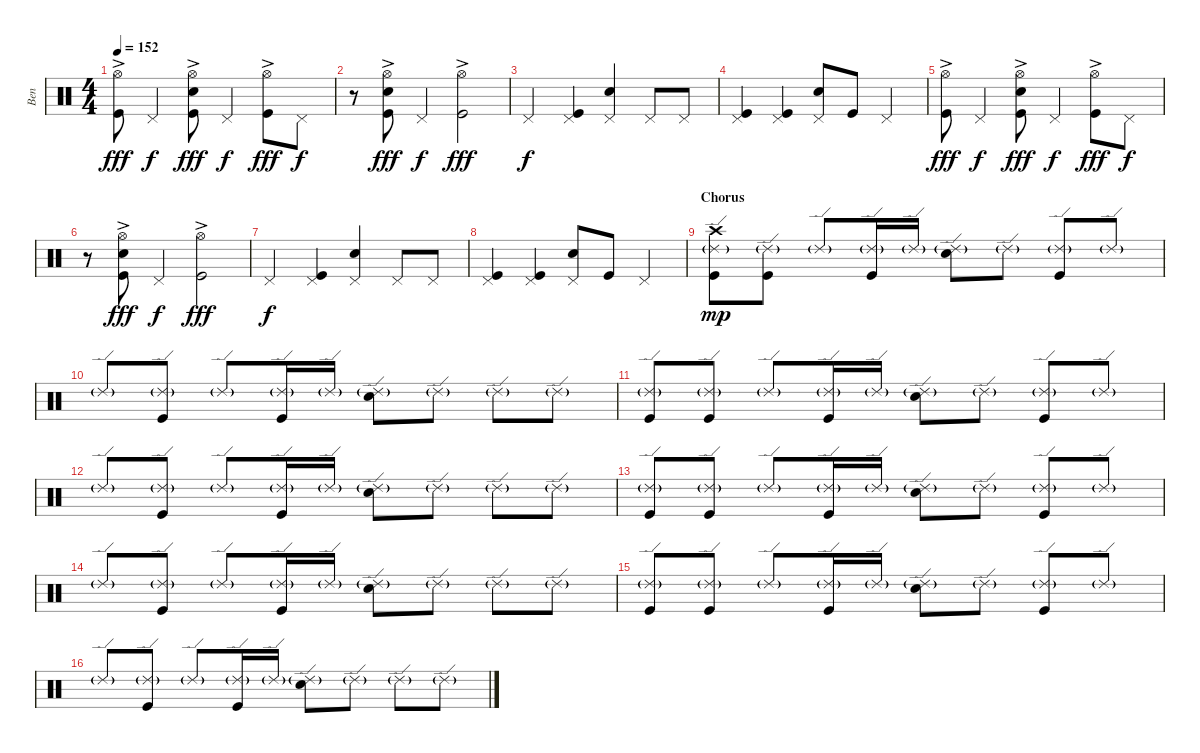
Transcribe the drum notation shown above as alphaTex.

\track ("Ben" "Ben") {instrument percussion}
\staff {score}
\articulation defaults
\ts (4 4)
\tempo 152
\clef neutral
\ks c
("Hi-Hat (open)" "Kick (hit)"{ac}).8{dy fff} "Pedal Hi-Hat (hit)".4{dy f} ("Hi-Hat (open)" "Electric Snare (hit)" "Kick (hit)"{ac}).8{dy fff} "Pedal Hi-Hat (hit)".4{dy f} ("Hi-Hat (open)" "Kick (hit)"{ac}).8{dy fff} "Pedal Hi-Hat (hit)".8{dy f} |
r.8 ("Hi-Hat (open)" "Electric Snare (hit)" "Kick (hit)"{ac}).8{dy fff} "Pedal Hi-Hat (hit)".4{dy f} ("Hi-Hat (open)" "Kick (hit)"{ac}).2{dy fff} |
"Pedal Hi-Hat (hit)".4{dy f} ("Pedal Hi-Hat (hit)" "Kick (hit)").4 ("Pedal Hi-Hat (hit)" "Electric Snare (hit)").4 "Pedal Hi-Hat (hit)".8 "Pedal Hi-Hat (hit)".8 |
("Pedal Hi-Hat (hit)" "Kick (hit)").4 ("Pedal Hi-Hat (hit)" "Kick (hit)").4 ("Pedal Hi-Hat (hit)" "Electric Snare (hit)").8 "Kick (hit)".8 "Pedal Hi-Hat (hit)".4 |
("Hi-Hat (open)" "Kick (hit)"{ac}).8{dy fff} "Pedal Hi-Hat (hit)".4{dy f} ("Hi-Hat (open)" "Electric Snare (hit)" "Kick (hit)"{ac}).8{dy fff} "Pedal Hi-Hat (hit)".4{dy f} ("Hi-Hat (open)" "Kick (hit)"{ac}).8{dy fff} "Pedal Hi-Hat (hit)".8{dy f} |
r.8 ("Hi-Hat (open)" "Electric Snare (hit)" "Kick (hit)"{ac}).8{dy fff} "Pedal Hi-Hat (hit)".4{dy f} ("Hi-Hat (open)" "Kick (hit)"{ac}).2{dy fff} |
"Pedal Hi-Hat (hit)".4{dy f} ("Pedal Hi-Hat (hit)" "Kick (hit)").4 ("Pedal Hi-Hat (hit)" "Electric Snare (hit)").4 "Pedal Hi-Hat (hit)".8 "Pedal Hi-Hat (hit)".8 |
("Pedal Hi-Hat (hit)" "Kick (hit)").4 ("Pedal Hi-Hat (hit)" "Kick (hit)").4 ("Pedal Hi-Hat (hit)" "Electric Snare (hit)").8 "Kick (hit)".8 "Pedal Hi-Hat (hit)".4 |
\section ("" "Chorus")
("Ride (edge) 2"{g} "Crash high (hit)" "Kick (hit)").8{dy mp} ("Ride (edge) 2"{g} "Kick (hit)").8 "Ride (edge) 2"{g}.8 ("Ride (edge) 2"{g} "Kick (hit)").16 "Ride (edge) 2"{g}.16 ("Ride (edge) 2"{g} "Electric Snare (hit)").8 "Ride (edge) 2"{g}.8 ("Ride (edge) 2"{g} "Kick (hit)").8 "Ride (edge) 2"{g}.8 |
"Ride (edge) 2"{g}.8 ("Ride (edge) 2"{g} "Kick (hit)").8 "Ride (edge) 2"{g}.8 ("Ride (edge) 2"{g} "Kick (hit)").16 "Ride (edge) 2"{g}.16 ("Ride (edge) 2"{g} "Electric Snare (hit)").8 "Ride (edge) 2"{g}.8 "Ride (edge) 2"{g}.8 "Ride (edge) 2"{g}.8 |
("Ride (edge) 2"{g} "Kick (hit)").8 ("Ride (edge) 2"{g} "Kick (hit)").8 "Ride (edge) 2"{g}.8 ("Ride (edge) 2"{g} "Kick (hit)").16 "Ride (edge) 2"{g}.16 ("Ride (edge) 2"{g} "Electric Snare (hit)").8 "Ride (edge) 2"{g}.8 ("Ride (edge) 2"{g} "Kick (hit)").8 "Ride (edge) 2"{g}.8 |
"Ride (edge) 2"{g}.8 ("Ride (edge) 2"{g} "Kick (hit)").8 "Ride (edge) 2"{g}.8 ("Ride (edge) 2"{g} "Kick (hit)").16 "Ride (edge) 2"{g}.16 ("Ride (edge) 2"{g} "Electric Snare (hit)").8 "Ride (edge) 2"{g}.8 "Ride (edge) 2"{g}.8 "Ride (edge) 2"{g}.8 |
("Ride (edge) 2"{g} "Kick (hit)").8 ("Ride (edge) 2"{g} "Kick (hit)").8 "Ride (edge) 2"{g}.8 ("Ride (edge) 2"{g} "Kick (hit)").16 "Ride (edge) 2"{g}.16 ("Ride (edge) 2"{g} "Electric Snare (hit)").8 "Ride (edge) 2"{g}.8 ("Ride (edge) 2"{g} "Kick (hit)").8 "Ride (edge) 2"{g}.8 |
"Ride (edge) 2"{g}.8 ("Ride (edge) 2"{g} "Kick (hit)").8 "Ride (edge) 2"{g}.8 ("Ride (edge) 2"{g} "Kick (hit)").16 "Ride (edge) 2"{g}.16 ("Ride (edge) 2"{g} "Electric Snare (hit)").8 "Ride (edge) 2"{g}.8 "Ride (edge) 2"{g}.8 "Ride (edge) 2"{g}.8 |
("Ride (edge) 2"{g} "Kick (hit)").8 ("Ride (edge) 2"{g} "Kick (hit)").8 "Ride (edge) 2"{g}.8 ("Ride (edge) 2"{g} "Kick (hit)").16 "Ride (edge) 2"{g}.16 ("Ride (edge) 2"{g} "Electric Snare (hit)").8 "Ride (edge) 2"{g}.8 ("Ride (edge) 2"{g} "Kick (hit)").8 "Ride (edge) 2"{g}.8 |
"Ride (edge) 2"{g}.8 ("Ride (edge) 2"{g} "Kick (hit)").8 "Ride (edge) 2"{g}.8 ("Ride (edge) 2"{g} "Kick (hit)").16 "Ride (edge) 2"{g}.16 ("Ride (edge) 2"{g} "Electric Snare (hit)").8 "Ride (edge) 2"{g}.8 "Ride (edge) 2"{g}.8 "Ride (edge) 2"{g}.8
